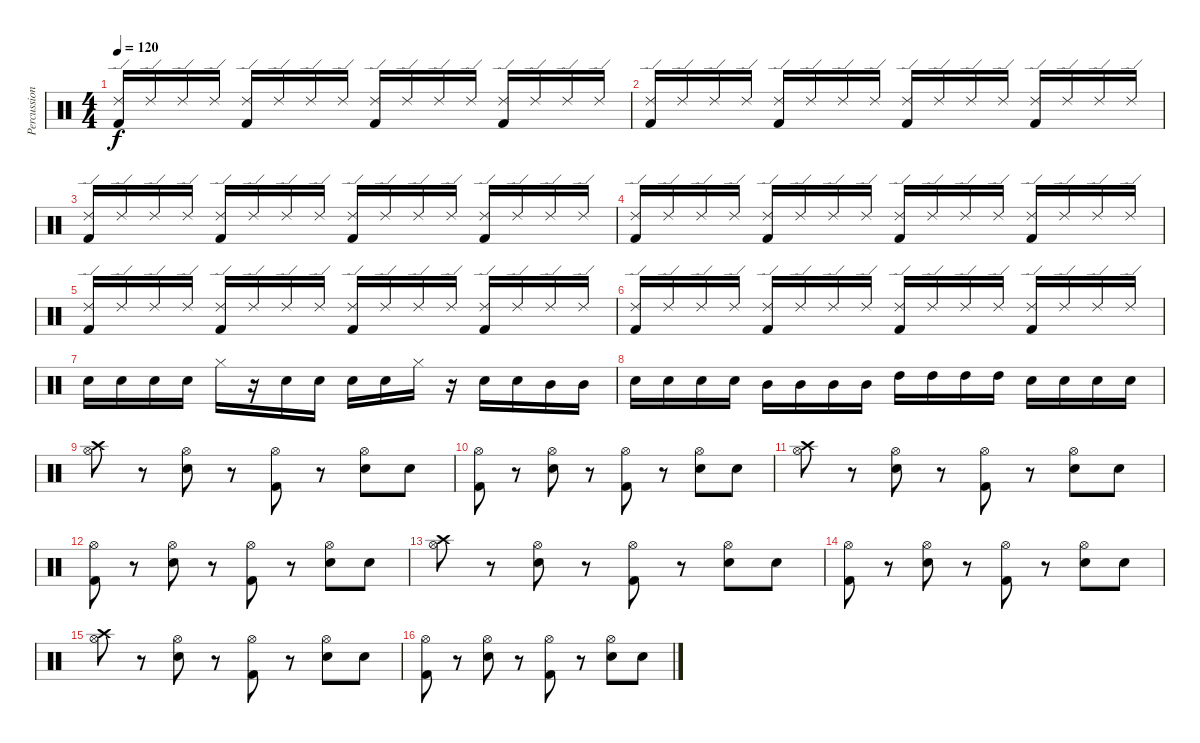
\track ("Percussion" "Percussion") {instrument percussion}
\staff {score}
\articulation defaults
\ts (4 4)
\tempo 120
\clef neutral
\ks c
("Kick (hit) 2" "Ride (edge) 2").16{dy f} "Ride (edge) 2".16 "Ride (edge) 2".16 "Ride (edge) 2".16 ("Kick (hit) 2" "Ride (edge) 2").16 "Ride (edge) 2".16 "Ride (edge) 2".16 "Ride (edge) 2".16 ("Kick (hit) 2" "Ride (edge) 2").16 "Ride (edge) 2".16 "Ride (edge) 2".16 "Ride (edge) 2".16 ("Kick (hit) 2" "Ride (edge) 2").16 "Ride (edge) 2".16 "Ride (edge) 2".16 "Ride (edge) 2".16 |
("Kick (hit) 2" "Ride (edge) 2").16 "Ride (edge) 2".16 "Ride (edge) 2".16 "Ride (edge) 2".16 ("Kick (hit) 2" "Ride (edge) 2").16 "Ride (edge) 2".16 "Ride (edge) 2".16 "Ride (edge) 2".16 ("Kick (hit) 2" "Ride (edge) 2").16 "Ride (edge) 2".16 "Ride (edge) 2".16 "Ride (edge) 2".16 ("Kick (hit) 2" "Ride (edge) 2").16 "Ride (edge) 2".16 "Ride (edge) 2".16 "Ride (edge) 2".16 |
("Kick (hit) 2" "Ride (edge) 2").16 "Ride (edge) 2".16 "Ride (edge) 2".16 "Ride (edge) 2".16 ("Kick (hit) 2" "Ride (edge) 2").16 "Ride (edge) 2".16 "Ride (edge) 2".16 "Ride (edge) 2".16 ("Kick (hit) 2" "Ride (edge) 2").16 "Ride (edge) 2".16 "Ride (edge) 2".16 "Ride (edge) 2".16 ("Kick (hit) 2" "Ride (edge) 2").16 "Ride (edge) 2".16 "Ride (edge) 2".16 "Ride (edge) 2".16 |
("Kick (hit) 2" "Ride (edge) 2").16 "Ride (edge) 2".16 "Ride (edge) 2".16 "Ride (edge) 2".16 ("Kick (hit) 2" "Ride (edge) 2").16 "Ride (edge) 2".16 "Ride (edge) 2".16 "Ride (edge) 2".16 ("Kick (hit) 2" "Ride (edge) 2").16 "Ride (edge) 2".16 "Ride (edge) 2".16 "Ride (edge) 2".16 ("Kick (hit) 2" "Ride (edge) 2").16 "Ride (edge) 2".16 "Ride (edge) 2".16 "Ride (edge) 2".16 |
("Kick (hit) 2" "Ride (edge) 2").16 "Ride (edge) 2".16 "Ride (edge) 2".16 "Ride (edge) 2".16 ("Kick (hit) 2" "Ride (edge) 2").16 "Ride (edge) 2".16 "Ride (edge) 2".16 "Ride (edge) 2".16 ("Kick (hit) 2" "Ride (edge) 2").16 "Ride (edge) 2".16 "Ride (edge) 2".16 "Ride (edge) 2".16 ("Kick (hit) 2" "Ride (edge) 2").16 "Ride (edge) 2".16 "Ride (edge) 2".16 "Ride (edge) 2".16 |
("Kick (hit) 2" "Ride (edge) 2").16 "Ride (edge) 2".16 "Ride (edge) 2".16 "Ride (edge) 2".16 ("Kick (hit) 2" "Ride (edge) 2").16 "Ride (edge) 2".16 "Ride (edge) 2".16 "Ride (edge) 2".16 ("Kick (hit) 2" "Ride (edge) 2").16 "Ride (edge) 2".16 "Ride (edge) 2".16 "Ride (edge) 2".16 ("Kick (hit) 2" "Ride (edge) 2").16 "Ride (edge) 2".16 "Ride (edge) 2".16 "Ride (edge) 2".16 |
"Snare (hit) 2".16 "Snare (hit) 2".16 "Snare (hit) 2".16 "Snare (hit) 2".16 "Hi-Hat (closed)".16 r.16 "Snare (hit) 2".16 "Snare (hit) 2".16 "Snare (hit) 2".16 "Snare (hit) 2".16 "Hi-Hat (closed)".16 r.16 "Snare (hit) 2".16 "Snare (hit) 2".16 "Mid Tom (hit)".16 "Mid Tom (hit)".16 |
"Snare (hit) 2".16 "Snare (hit) 2".16 "Snare (hit) 2".16 "Snare (hit) 2".16 "Mid Tom (hit)".16 "Mid Tom (hit)".16 "Mid Tom (hit)".16 "Mid Tom (hit)".16 "High Tom (hit)".16 "High Tom (hit)".16 "High Tom (hit)".16 "High Tom (hit)".16 "Snare (hit) 2".16 "Snare (hit) 2".16 "Snare (hit) 2".16 "Snare (hit) 2".16 |
("Crash high (hit)" "Hi-Hat (open)").8 r.8 ("Electric Snare (hit)" "Hi-Hat (open)").8 r.8 ("Kick (hit) 2" "Hi-Hat (open)").8 r.8 ("Electric Snare (hit)" "Hi-Hat (open)").8 "Snare (hit)".8 |
("Kick (hit) 2" "Hi-Hat (open)").8 r.8 ("Electric Snare (hit)" "Hi-Hat (open)").8 r.8 ("Kick (hit) 2" "Hi-Hat (open)").8 r.8 ("Electric Snare (hit)" "Hi-Hat (open)").8 "Snare (hit) 2".8 |
("Crash high (hit)" "Hi-Hat (open)").8 r.8 ("Electric Snare (hit)" "Hi-Hat (open)").8 r.8 ("Kick (hit) 2" "Hi-Hat (open)").8 r.8 ("Electric Snare (hit)" "Hi-Hat (open)").8 "Snare (hit)".8 |
("Kick (hit) 2" "Hi-Hat (open)").8 r.8 ("Electric Snare (hit)" "Hi-Hat (open)").8 r.8 ("Kick (hit) 2" "Hi-Hat (open)").8 r.8 ("Electric Snare (hit)" "Hi-Hat (open)").8 "Snare (hit)".8 |
("Crash high (hit)" "Hi-Hat (open)").8 r.8 ("Electric Snare (hit)" "Hi-Hat (open)").8 r.8 ("Kick (hit) 2" "Hi-Hat (open)").8 r.8 ("Electric Snare (hit)" "Hi-Hat (open)").8 "Snare (hit)".8 |
("Kick (hit) 2" "Hi-Hat (open)").8 r.8 ("Electric Snare (hit)" "Hi-Hat (open)").8 r.8 ("Kick (hit) 2" "Hi-Hat (open)").8 r.8 ("Electric Snare (hit)" "Hi-Hat (open)").8 "Snare (hit)".8 |
("Crash high (hit)" "Hi-Hat (open)").8 r.8 ("Electric Snare (hit)" "Hi-Hat (open)").8 r.8 ("Kick (hit) 2" "Hi-Hat (open)").8 r.8 ("Electric Snare (hit)" "Hi-Hat (open)").8 "Snare (hit)".8 |
("Kick (hit) 2" "Hi-Hat (open)").8 r.8 ("Electric Snare (hit)" "Hi-Hat (open)").8 r.8 ("Kick (hit) 2" "Hi-Hat (open)").8 r.8 ("Electric Snare (hit)" "Hi-Hat (open)").8 "Snare (hit)".8
